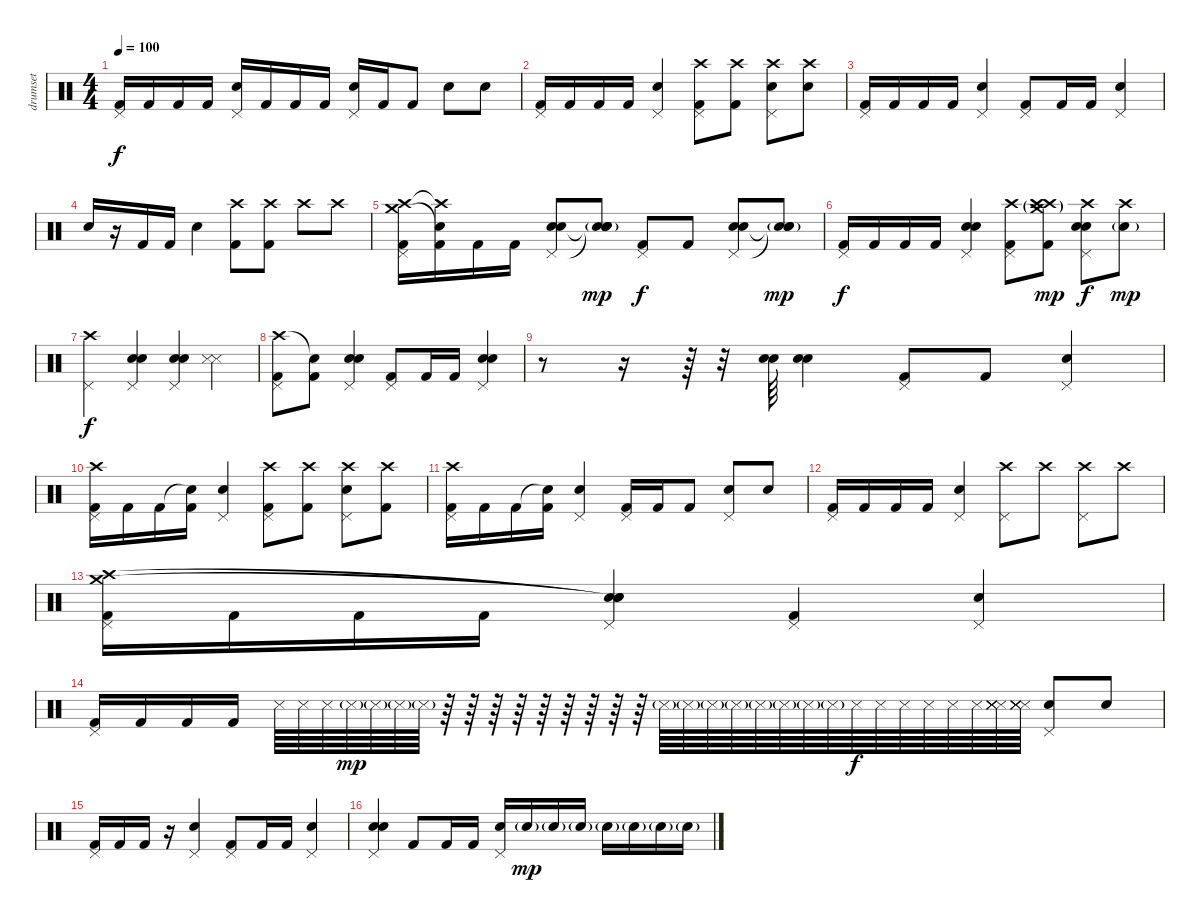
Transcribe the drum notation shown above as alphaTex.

\track ("drumset" "drumset") {instrument percussion}
\staff {score}
\articulation defaults
\ts (4 4)
\tempo 100
\clef neutral
\ks c
("Pedal Hi-Hat (hit)" "Kick (hit) 2").16{dy f} "Kick (hit) 2".16 "Kick (hit) 2".16 "Kick (hit) 2".16 ("Pedal Hi-Hat (hit)" "Electric Snare (hit)").16 "Kick (hit) 2".16 "Kick (hit) 2".16 "Kick (hit) 2".16 ("Pedal Hi-Hat (hit)" "Electric Snare (hit)").16 "Kick (hit) 2".16 "Kick (hit) 2".8 "Electric Snare (hit)".8 "Electric Snare (hit)".8 |
("Pedal Hi-Hat (hit)" "Kick (hit) 2").16 "Kick (hit) 2".16 "Kick (hit) 2".16 "Kick (hit) 2".16 ("Pedal Hi-Hat (hit)" "Electric Snare (hit)").4 ("Pedal Hi-Hat (hit)" "Crash high (hit)" "Kick (hit) 2").8 ("Crash high (hit)" "Kick (hit) 2").8 ("Pedal Hi-Hat (hit)" "Crash high (hit)" "Electric Snare (hit)").8 ("Crash high (hit)" "Electric Snare (hit)").8 |
("Pedal Hi-Hat (hit)" "Kick (hit) 2").16 "Kick (hit) 2".16 "Kick (hit) 2".16 "Kick (hit) 2".16 ("Pedal Hi-Hat (hit)" "Electric Snare (hit)").4 ("Pedal Hi-Hat (hit)" "Kick (hit) 2").8 "Kick (hit) 2".16 "Kick (hit) 2".16 ("Pedal Hi-Hat (hit)" "Electric Snare (hit)").4 |
"Electric Snare (hit)".16 r.16 "Kick (hit) 2".16 "Kick (hit) 2".16 "Electric Snare (hit)".4 ("Crash high (hit)" "Kick (hit) 2").8 ("Crash high (hit)" "Kick (hit) 2").8 "Crash high (hit)".8 "Crash high (hit)".8 |
("Crash medium (hit)" "Crash high (hit)" "Pedal Hi-Hat (hit)" "Kick (hit) 2").16 ("Snare (hit)"{t} "Crash high (hit)"{t} "Kick (hit) 2").16 "Kick (hit) 2".16 "Kick (hit) 2".16 ("Pedal Hi-Hat (hit)" "Electric Snare (hit)" "Electric Snare (hit)").8 ("Snare (hit)"{t} "Electric Snare (hit)"{t} "Electric Snare (hit)"{g} "Electric Snare (hit)"{g}).8{dy mp} ("Pedal Hi-Hat (hit)" "Kick (hit) 2").8{dy f} "Kick (hit) 2".8 ("Pedal Hi-Hat (hit)" "Electric Snare (hit)" "Electric Snare (hit)").8 ("Snare (hit)"{t} "Snare (hit)"{t} "Electric Snare (hit)"{g}).8{dy mp} |
("Pedal Hi-Hat (hit)" "Kick (hit) 2").16{dy f} "Kick (hit) 2".16 "Kick (hit) 2".16 "Kick (hit) 2".16 ("Pedal Hi-Hat (hit)" "Electric Snare (hit)" "Electric Snare (hit)").4 ("Crash high (hit)" "Pedal Hi-Hat (hit)" "Kick (hit) 2").8 ("Crash high (hit)" "Crash medium (hit)"{g} "Crash high (hit)"{g} "Kick (hit) 2").8{dy mp} ("Crash high (hit)" "Pedal Hi-Hat (hit)" "Electric Snare (hit)" "Electric Snare (hit)").8{dy f} ("Crash high (hit)" "Electric Snare (hit)"{g}).8{dy mp} |
("Crash high (hit)" "Pedal Hi-Hat (hit)").4{dy f} ("Pedal Hi-Hat (hit)" "Electric Snare (hit)" "Electric Snare (hit)").4 ("Pedal Hi-Hat (hit)" "Electric Snare (hit)" "Electric Snare (hit)").4 ("Snare (side stick) 3" "Snare (side stick) 3").4 |
("Crash high (hit)" "Pedal Hi-Hat (hit)" "Kick (hit) 2").8 ("Snare (hit)"{t} "Kick (hit) 2").8 ("Pedal Hi-Hat (hit)" "Electric Snare (hit)" "Electric Snare (hit)").4 ("Pedal Hi-Hat (hit)" "Kick (hit) 2").8 "Kick (hit) 2".16 "Kick (hit) 2".16 ("Pedal Hi-Hat (hit)" "Electric Snare (hit)" "Electric Snare (hit)").4 |
r.8 r.16 r.64 r.32 ("Electric Snare (hit)" "Electric Snare (hit)").64 ("Electric Snare (hit)" "Electric Snare (hit)").4 ("Pedal Hi-Hat (hit)" "Kick (hit) 2").8 "Kick (hit) 2".8 ("Pedal Hi-Hat (hit)" "Electric Snare (hit)").4 |
("Crash high (hit)" "Pedal Hi-Hat (hit)" "Kick (hit) 2").16 "Kick (hit) 2".16 "Kick (hit) 2".16 ("Snare (hit)"{t} "Kick (hit) 2").16 ("Pedal Hi-Hat (hit)" "Electric Snare (hit)").4 ("Crash high (hit)" "Pedal Hi-Hat (hit)" "Kick (hit) 2").8 ("Crash high (hit)" "Kick (hit) 2").8 ("Crash high (hit)" "Pedal Hi-Hat (hit)" "Electric Snare (hit)").8 ("Crash high (hit)" "Kick (hit) 2").8 |
("Crash high (hit)" "Pedal Hi-Hat (hit)" "Kick (hit) 2").16 "Kick (hit) 2".16 "Kick (hit) 2".16 ("Snare (hit)"{t} "Kick (hit) 2").16 ("Pedal Hi-Hat (hit)" "Electric Snare (hit)").4 ("Pedal Hi-Hat (hit)" "Kick (hit) 2").16 "Kick (hit) 2".16 "Kick (hit) 2".8 ("Pedal Hi-Hat (hit)" "Electric Snare (hit)").8 "Electric Snare (hit)".8 |
("Pedal Hi-Hat (hit)" "Kick (hit) 2").16 "Kick (hit) 2".16 "Kick (hit) 2".16 "Kick (hit) 2".16 ("Pedal Hi-Hat (hit)" "Electric Snare (hit)").4 ("Crash high (hit)" "Pedal Hi-Hat (hit)").8 "Crash high (hit)".8 ("Crash high (hit)" "Pedal Hi-Hat (hit)").8 "Crash high (hit)".8 |
("Pedal Hi-Hat (hit)" "Crash medium (hit)" "Crash high (hit)" "Kick (hit) 2").16 "Kick (hit) 2".16 "Kick (hit) 2".16 "Kick (hit) 2".16 ("Pedal Hi-Hat (hit)" "Snare (hit)"{t} "Snare (hit)"{t} "Electric Snare (hit)").4 ("Pedal Hi-Hat (hit)" "Kick (hit) 2").4 ("Pedal Hi-Hat (hit)" "Electric Snare (hit)").4 |
("Pedal Hi-Hat (hit)" "Kick (hit) 2").16 "Kick (hit) 2".16 "Kick (hit) 2".16 "Kick (hit) 2".16 "Snare (side stick) 3".64 "Snare (side stick) 3".64 "Snare (side stick) 3".64 "Snare (side stick) 3"{g}.64{dy mp} "Snare (side stick) 3"{g}.64 "Snare (side stick) 3"{g}.64 "Snare (side stick) 3"{g}.64 r.64 r.64 r.64 r.64 r.64 r.64 r.64 r.64 r.64 "Snare (side stick) 3"{g}.64 "Snare (side stick) 3"{g}.64 "Snare (side stick) 3"{g}.64 "Snare (side stick) 3"{g}.64 "Snare (side stick) 3"{g}.64 "Snare (side stick) 3"{g}.64 "Snare (side stick) 3"{g}.64 "Snare (side stick) 3"{g}.64 "Snare (side stick) 3".64{dy f} "Snare (side stick) 3".64 "Snare (side stick) 3".64 "Snare (side stick) 3".64 "Snare (side stick) 3".64 "Snare (side stick) 3".64 ("Snare (side stick) 3" "Snare (side stick) 3" "Snare (side stick) 3" "Snare (side stick) 3" "Snare (side stick) 3" "Snare (side stick) 3").64 ("Snare (side stick) 3" "Snare (side stick) 3" "Snare (side stick) 3" "Snare (side stick) 3" "Snare (side stick) 3" "Snare (side stick) 3").64 ("Pedal Hi-Hat (hit)" "Electric Snare (hit)").8 "Electric Snare (hit)".8 |
("Pedal Hi-Hat (hit)" "Kick (hit) 2").16 "Kick (hit) 2".16 "Kick (hit) 2".16 r.16 ("Pedal Hi-Hat (hit)" "Electric Snare (hit)").4 ("Pedal Hi-Hat (hit)" "Kick (hit) 2").8 "Kick (hit) 2".16 "Kick (hit) 2".16 ("Pedal Hi-Hat (hit)" "Electric Snare (hit)").4 |
("Pedal Hi-Hat (hit)" "Electric Snare (hit)" "Electric Snare (hit)").4 "Kick (hit) 2".8 "Kick (hit) 2".16 "Kick (hit) 2".16 ("Pedal Hi-Hat (hit)" "Electric Snare (hit)").16 "Electric Snare (hit)"{g}.16{dy mp volume 0} "Electric Snare (hit)"{g}.16 "Electric Snare (hit)"{g}.16 "Electric Snare (hit)"{g}.16 "Electric Snare (hit)"{g}.16 "Electric Snare (hit)"{g}.16 "Electric Snare (hit)"{g}.16
